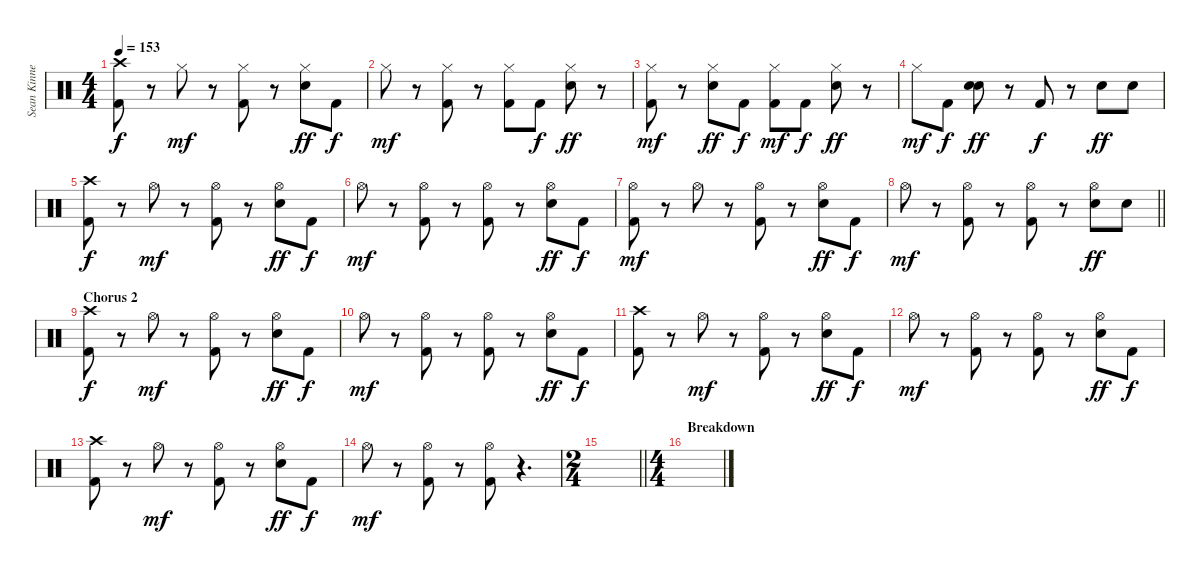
\track ("Sean Kinney - Drums" "Sean Kinne") {instrument percussion}
\staff {score}
\articulation defaults
\ts (4 4)
\tempo 153
\clef neutral
\ks c
("Crash high (hit)" "Kick (hit) 2").8{dy f} r.8 "Hi-Hat (closed)".8{dy mf} r.8 ("Hi-Hat (closed)" "Kick (hit) 2").8 r.8 ("Hi-Hat (closed)" "Snare (hit) 2").8{dy ff} "Kick (hit) 2".8{dy f} |
"Hi-Hat (closed)".8{dy mf} r.8 ("Hi-Hat (closed)" "Kick (hit) 2").8 r.8 ("Hi-Hat (closed)" "Kick (hit) 2").8 "Kick (hit) 2".8{dy f} ("Hi-Hat (closed)" "Snare (hit) 2").8{dy ff} r.8 |
("Hi-Hat (closed)" "Kick (hit) 2").8{dy mf} r.8 ("Hi-Hat (closed)" "Snare (hit) 2").8{dy ff} "Kick (hit) 2".8{dy f} ("Hi-Hat (closed)" "Kick (hit) 2").8{dy mf} "Kick (hit) 2".8{dy f} ("Hi-Hat (closed)" "Snare (hit) 2").8{dy ff} r.8 |
"Hi-Hat (closed)".8{dy mf} "Kick (hit) 2".8{dy f} ("Snare (hit) 2" "Snare (hit) 2").8{dy ff} r.8 "Kick (hit) 2".8{dy f} r.8 "Snare (hit) 2".8{dy ff} "Snare (hit) 2".8 |
("Crash high (hit)" "Kick (hit) 2").8{dy f} r.8 "Hi-Hat (open)".8{dy mf} r.8 ("Hi-Hat (open)" "Kick (hit) 2").8 r.8 ("Hi-Hat (open)" "Snare (hit) 2").8{dy ff} "Kick (hit) 2".8{dy f} |
"Hi-Hat (open)".8{dy mf} r.8 ("Hi-Hat (open)" "Kick (hit) 2").8 r.8 ("Hi-Hat (open)" "Kick (hit) 2").8 r.8 ("Hi-Hat (open)" "Snare (hit) 2").8{dy ff} "Kick (hit) 2".8{dy f} |
("Hi-Hat (open)" "Kick (hit) 2").8{dy mf} r.8 "Hi-Hat (open)".8 r.8 ("Hi-Hat (open)" "Kick (hit) 2").8 r.8 ("Hi-Hat (open)" "Snare (hit) 2").8{dy ff} "Kick (hit) 2".8{dy f} |
\barLineRight lightlight "Hi-Hat (open)".8{dy mf}
r.8 ("Hi-Hat (open)" "Kick (hit) 2").8 r.8 ("Hi-Hat (open)" "Kick (hit) 2").8 r.8 ("Hi-Hat (open)" "Snare (hit) 2").8{dy ff} "Snare (hit) 2".8 |
\section ("" "Chorus 2")
("Crash high (hit)" "Kick (hit) 2").8{dy f} r.8 "Hi-Hat (open)".8{dy mf} r.8 ("Hi-Hat (open)" "Kick (hit) 2").8 r.8 ("Hi-Hat (open)" "Snare (hit) 2").8{dy ff} "Kick (hit) 2".8{dy f} |
"Hi-Hat (open)".8{dy mf} r.8 ("Hi-Hat (open)" "Kick (hit) 2").8 r.8 ("Hi-Hat (open)" "Kick (hit) 2").8 r.8 ("Hi-Hat (open)" "Snare (hit) 2").8{dy ff} "Kick (hit) 2".8{dy f} |
("Crash high (hit)" "Kick (hit) 2").8 r.8 "Hi-Hat (open)".8{dy mf} r.8 ("Hi-Hat (open)" "Kick (hit) 2").8 r.8 ("Hi-Hat (open)" "Snare (hit) 2").8{dy ff} "Kick (hit) 2".8{dy f} |
"Hi-Hat (open)".8{dy mf} r.8 ("Hi-Hat (open)" "Kick (hit) 2").8 r.8 ("Hi-Hat (open)" "Kick (hit) 2").8 r.8 ("Hi-Hat (open)" "Snare (hit) 2").8{dy ff} "Kick (hit) 2".8{dy f} |
("Crash high (hit)" "Kick (hit) 2").8 r.8 "Hi-Hat (open)".8{dy mf} r.8 ("Hi-Hat (open)" "Kick (hit) 2").8 r.8 ("Hi-Hat (open)" "Snare (hit) 2").8{dy ff} "Kick (hit) 2".8{dy f} |
"Hi-Hat (open)".8{dy mf} r.8 ("Hi-Hat (open)" "Kick (hit) 2").8 r.8 ("Hi-Hat (open)" "Kick (hit) 2").8 r.4{d} |
\ts (2 4)
\barLineRight lightlight
|
\ts (4 4)
\section ("" "Breakdown")
